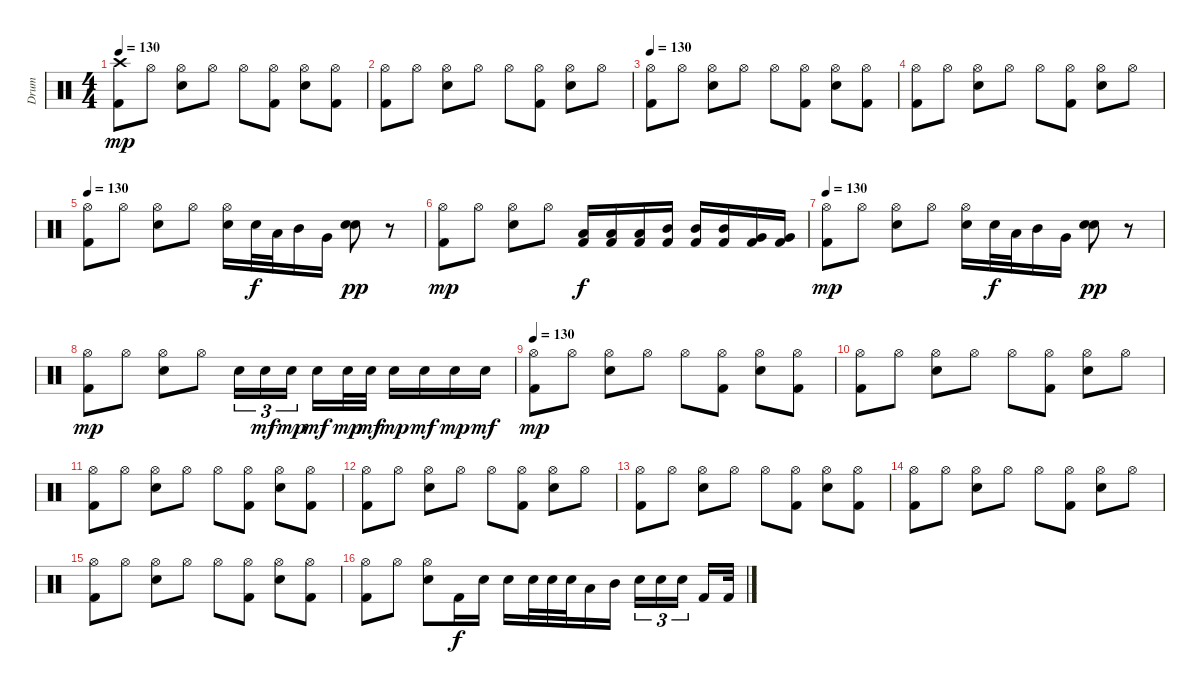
\track ("Drum" "Drum") {instrument percussion}
\staff {score}
\articulation defaults
\ts (4 4)
\tempo 130
\clef neutral
\ks c
("Crash high (hit)" "Kick (hit) 2").8{dy mp} "Hi-Hat (open)".8 ("Hi-Hat (open)" "Electric Snare (hit)").8 "Hi-Hat (open)".8 "Hi-Hat (open)".8 ("Hi-Hat (open)" "Kick (hit) 2").8 ("Hi-Hat (open)" "Electric Snare (hit)").8 ("Hi-Hat (open)" "Kick (hit) 2").8 |
("Hi-Hat (open)" "Kick (hit) 2").8 "Hi-Hat (open)".8 ("Hi-Hat (open)" "Electric Snare (hit)").8 "Hi-Hat (open)".8 "Hi-Hat (open)".8 ("Hi-Hat (open)" "Kick (hit) 2").8 ("Hi-Hat (open)" "Electric Snare (hit)").8 "Hi-Hat (open)".8 |
\tempo 130
("Hi-Hat (open)" "Kick (hit) 2").8 "Hi-Hat (open)".8 ("Hi-Hat (open)" "Electric Snare (hit)").8 "Hi-Hat (open)".8 "Hi-Hat (open)".8 ("Hi-Hat (open)" "Kick (hit) 2").8 ("Hi-Hat (open)" "Electric Snare (hit)").8 ("Hi-Hat (open)" "Kick (hit) 2").8 |
("Hi-Hat (open)" "Kick (hit) 2").8 "Hi-Hat (open)".8 ("Hi-Hat (open)" "Electric Snare (hit)").8 "Hi-Hat (open)".8 "Hi-Hat (open)".8 ("Hi-Hat (open)" "Kick (hit) 2").8 ("Hi-Hat (open)" "Electric Snare (hit)").8 "Hi-Hat (open)".8 |
\tempo 130
("Hi-Hat (open)" "Kick (hit) 2").8 "Hi-Hat (open)".8 ("Hi-Hat (open)" "Electric Snare (hit)").8 "Hi-Hat (open)".8 ("Hi-Hat (open)" "Electric Snare (hit)").16 "Electric Snare (hit)".32{dy f} "Low Tom (hit)".32 "Mid Tom (hit)".16 "Very Low Tom (hit)".16 ("Electric Snare (hit)" "Electric Snare (hit)").8{dy pp} r.8 |
("Hi-Hat (open)" "Kick (hit) 2").8{dy mp} "Hi-Hat (open)".8 ("Hi-Hat (open)" "Electric Snare (hit)").8 "Hi-Hat (open)".8 ("Low Tom (hit)" "Kick (hit) 2").16{dy f} ("Low Tom (hit)" "Kick (hit) 2").16 ("Low Tom (hit)" "Kick (hit) 2").16 ("Mid Tom (hit)" "Kick (hit) 2").16 ("Mid Tom (hit)" "Kick (hit) 2").16 ("Mid Tom (hit)" "Kick (hit) 2").16 ("Very Low Tom (hit)" "Kick (hit) 2").16 ("Very Low Tom (hit)" "Kick (hit) 2").16 |
\tempo 130
("Hi-Hat (open)" "Kick (hit) 2").8{dy mp} "Hi-Hat (open)".8 ("Hi-Hat (open)" "Electric Snare (hit)").8 "Hi-Hat (open)".8 ("Hi-Hat (open)" "Electric Snare (hit)").16 "Electric Snare (hit)".32{dy f} "Low Tom (hit)".32 "Mid Tom (hit)".16 "Very Low Tom (hit)".16 ("Electric Snare (hit)" "Electric Snare (hit)").8{dy pp} r.8 |
("Hi-Hat (open)" "Kick (hit) 2").8{dy mp} "Hi-Hat (open)".8 ("Hi-Hat (open)" "Electric Snare (hit)").8 "Hi-Hat (open)".8 "Electric Snare (hit)".16{tu (3 2)} "Electric Snare (hit)".16{tu (3 2) dy mf} "Electric Snare (hit)".16{tu (3 2) dy mp} "Electric Snare (hit)".16{dy mf} "Electric Snare (hit)".32{dy mp} "Electric Snare (hit)".32{dy mf} "Electric Snare (hit)".16{dy mp} "Electric Snare (hit)".16{dy mf} "Electric Snare (hit)".16{dy mp} "Electric Snare (hit)".16{dy mf} |
\tempo 130
("Hi-Hat (open)" "Kick (hit) 2").8{dy mp} "Hi-Hat (open)".8 ("Hi-Hat (open)" "Electric Snare (hit)").8 "Hi-Hat (open)".8 "Hi-Hat (open)".8 ("Hi-Hat (open)" "Kick (hit) 2").8 ("Hi-Hat (open)" "Electric Snare (hit)").8 ("Hi-Hat (open)" "Kick (hit) 2").8 |
("Hi-Hat (open)" "Kick (hit) 2").8 "Hi-Hat (open)".8 ("Hi-Hat (open)" "Electric Snare (hit)").8 "Hi-Hat (open)".8 "Hi-Hat (open)".8 ("Hi-Hat (open)" "Kick (hit) 2").8 ("Hi-Hat (open)" "Electric Snare (hit)").8 "Hi-Hat (open)".8 |
("Hi-Hat (open)" "Kick (hit) 2").8 "Hi-Hat (open)".8 ("Hi-Hat (open)" "Electric Snare (hit)").8 "Hi-Hat (open)".8 "Hi-Hat (open)".8 ("Hi-Hat (open)" "Kick (hit) 2").8 ("Hi-Hat (open)" "Electric Snare (hit)").8 ("Hi-Hat (open)" "Kick (hit) 2").8 |
("Hi-Hat (open)" "Kick (hit) 2").8 "Hi-Hat (open)".8 ("Hi-Hat (open)" "Electric Snare (hit)").8 "Hi-Hat (open)".8 "Hi-Hat (open)".8 ("Hi-Hat (open)" "Kick (hit) 2").8 ("Hi-Hat (open)" "Electric Snare (hit)").8 "Hi-Hat (open)".8 |
("Hi-Hat (open)" "Kick (hit) 2").8 "Hi-Hat (open)".8 ("Hi-Hat (open)" "Electric Snare (hit)").8 "Hi-Hat (open)".8 "Hi-Hat (open)".8 ("Hi-Hat (open)" "Kick (hit) 2").8 ("Hi-Hat (open)" "Electric Snare (hit)").8 ("Hi-Hat (open)" "Kick (hit) 2").8 |
("Hi-Hat (open)" "Kick (hit) 2").8 "Hi-Hat (open)".8 ("Hi-Hat (open)" "Electric Snare (hit)").8 "Hi-Hat (open)".8 "Hi-Hat (open)".8 ("Hi-Hat (open)" "Kick (hit) 2").8 ("Hi-Hat (open)" "Electric Snare (hit)").8 "Hi-Hat (open)".8 |
("Hi-Hat (open)" "Kick (hit) 2").8 "Hi-Hat (open)".8 ("Hi-Hat (open)" "Electric Snare (hit)").8 "Hi-Hat (open)".8 "Hi-Hat (open)".8 ("Hi-Hat (open)" "Kick (hit) 2").8 ("Hi-Hat (open)" "Electric Snare (hit)").8 ("Hi-Hat (open)" "Kick (hit) 2").8 |
("Hi-Hat (open)" "Kick (hit) 2").8 "Hi-Hat (open)".8 ("Hi-Hat (open)" "Electric Snare (hit)").8 "Kick (hit) 2".16{dy f} "Electric Snare (hit)".16 "Electric Snare (hit)".16 "Electric Snare (hit)".32 "Electric Snare (hit)".32 "Electric Snare (hit)".32 "Low Tom (hit)".16 "Mid Tom (hit)".16 "Electric Snare (hit)".16{tu (3 2)} "Electric Snare (hit)".16{tu (3 2)} "Electric Snare (hit)".16{tu (3 2)} "Kick (hit) 2".16 "Kick (hit) 2".32
